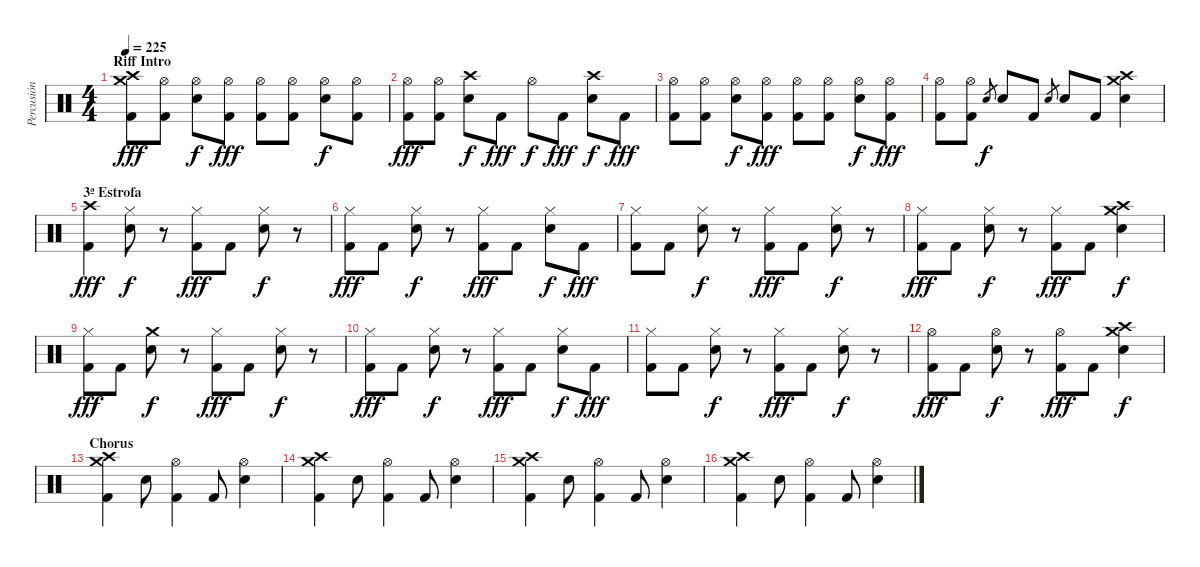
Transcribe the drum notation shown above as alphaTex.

\track ("Percusión" "Percusión") {instrument percussion}
\staff {score}
\articulation defaults
\ts (4 4)
\section ("" "Riff Intro")
\tempo 225
\clef neutral
\ks c
("Kick (hit) 2" "Crash medium (hit)" "Crash high (hit)").8{dy fff} ("Kick (hit) 2" "Hi-Hat (open)").8 ("Electric Snare (hit)" "Hi-Hat (open)").8{dy f} ("Kick (hit) 2" "Hi-Hat (open)").8{dy fff} ("Kick (hit) 2" "Hi-Hat (open)").8 ("Kick (hit) 2" "Hi-Hat (open)").8 ("Electric Snare (hit)" "Hi-Hat (open)").8{dy f} ("Kick (hit) 2" "Hi-Hat (open)").8 |
("Kick (hit) 2" "Hi-Hat (open)").8{dy fff} ("Kick (hit) 2" "Hi-Hat (open)").8 ("Electric Snare (hit)" "Crash high (hit)").8{dy f} "Kick (hit) 2".8{dy fff} "Hi-Hat (open)".8{dy f} "Kick (hit) 2".8{dy fff} ("Electric Snare (hit)" "Crash high (hit)").8{dy f} "Kick (hit) 2".8{dy fff} |
("Kick (hit) 2" "Hi-Hat (open)").8 ("Kick (hit) 2" "Hi-Hat (open)").8 ("Electric Snare (hit)" "Hi-Hat (open)").8{dy f} ("Kick (hit) 2" "Hi-Hat (open)").8{dy fff} ("Kick (hit) 2" "Hi-Hat (open)").8 ("Kick (hit) 2" "Hi-Hat (open)").8 ("Electric Snare (hit)" "Hi-Hat (open)").8{dy f} ("Kick (hit) 2" "Hi-Hat (open)").8{dy fff} |
("Kick (hit) 2" "Hi-Hat (open)").8 ("Kick (hit) 2" "Hi-Hat (open)").8 "Electric Snare (hit)".8{gr dy f} "Electric Snare (hit)".8 "Kick (hit) 2".8 "Electric Snare (hit)".8{gr} "Electric Snare (hit)".8 "Kick (hit) 2".8 ("Electric Snare (hit)" "Crash high (hit)" "Crash medium (hit)").4 |
\section ("" "3ª Estrofa")
("Crash high (hit)" "Kick (hit) 2").4{dy fff} ("Electric Snare (hit)" "Hi-Hat (closed)").8{dy f} r.8 ("Kick (hit) 2" "Hi-Hat (closed)").8{dy fff} "Kick (hit) 2".8 ("Electric Snare (hit)" "Hi-Hat (closed)").8{dy f} r.8 |
("Kick (hit) 2" "Hi-Hat (closed)").8{dy fff} "Kick (hit) 2".8 ("Electric Snare (hit)" "Hi-Hat (closed)").8{dy f} r.8 ("Kick (hit) 2" "Hi-Hat (closed)").8{dy fff} "Kick (hit) 2".8 ("Electric Snare (hit)" "Hi-Hat (closed)").8{dy f} "Kick (hit) 2".8{dy fff} |
("Kick (hit) 2" "Hi-Hat (closed)").8 "Kick (hit) 2".8 ("Electric Snare (hit)" "Hi-Hat (closed)").8{dy f} r.8 ("Kick (hit) 2" "Hi-Hat (closed)").8{dy fff} "Kick (hit) 2".8 ("Electric Snare (hit)" "Hi-Hat (closed)").8{dy f} r.8 |
("Kick (hit) 2" "Hi-Hat (closed)").8{dy fff} "Kick (hit) 2".8 ("Electric Snare (hit)" "Hi-Hat (closed)").8{dy f} r.8 ("Kick (hit) 2" "Hi-Hat (closed)").8{dy fff} "Kick (hit) 2".8 ("Electric Snare (hit)" "Crash medium (hit)" "Crash high (hit)").4{dy f} |
\section ("" "")
("Kick (hit) 2" "Hi-Hat (closed)").8{dy fff} "Kick (hit) 2".8 ("Crash medium (hit)" "Electric Snare (hit)").8{dy f} r.8 ("Kick (hit) 2" "Hi-Hat (closed)").8{dy fff} "Kick (hit) 2".8 ("Electric Snare (hit)" "Hi-Hat (closed)").8{dy f} r.8 |
("Kick (hit) 2" "Hi-Hat (closed)").8{dy fff} "Kick (hit) 2".8 ("Electric Snare (hit)" "Hi-Hat (closed)").8{dy f} r.8 ("Kick (hit) 2" "Hi-Hat (closed)").8{dy fff} "Kick (hit) 2".8 ("Electric Snare (hit)" "Hi-Hat (closed)").8{dy f} "Kick (hit) 2".8{dy fff} |
("Kick (hit) 2" "Hi-Hat (closed)").8 "Kick (hit) 2".8 ("Electric Snare (hit)" "Hi-Hat (closed)").8{dy f} r.8 ("Kick (hit) 2" "Hi-Hat (closed)").8{dy fff} "Kick (hit) 2".8 ("Electric Snare (hit)" "Hi-Hat (closed)").8{dy f} r.8 |
("Kick (hit) 2" "Hi-Hat (open)").8{dy fff} "Kick (hit) 2".8 ("Electric Snare (hit)" "Hi-Hat (open)").8{dy f} r.8 ("Kick (hit) 2" "Hi-Hat (open)").8{dy fff} "Kick (hit) 2".8 ("Electric Snare (hit)" "Crash medium (hit)" "Crash high (hit)").4{dy f} |
\section ("" "Chorus")
("Kick (hit) 2" "Crash medium (hit)" "Crash high (hit)").4 "Electric Snare (hit)".8 ("Kick (hit) 2" "Hi-Hat (open)").4 "Kick (hit) 2".8 ("Electric Snare (hit)" "Hi-Hat (open)").4 |
("Kick (hit) 2" "Crash medium (hit)" "Crash high (hit)").4 "Electric Snare (hit)".8 ("Kick (hit) 2" "Hi-Hat (open)").4 "Kick (hit) 2".8 ("Electric Snare (hit)" "Hi-Hat (open)").4 |
("Kick (hit) 2" "Crash medium (hit)" "Crash high (hit)").4 "Electric Snare (hit)".8 ("Kick (hit) 2" "Hi-Hat (open)").4 "Kick (hit) 2".8 ("Electric Snare (hit)" "Hi-Hat (open)").4 |
("Kick (hit) 2" "Crash medium (hit)" "Crash high (hit)").4 "Electric Snare (hit)".8 ("Kick (hit) 2" "Hi-Hat (open)").4 "Kick (hit) 2".8 ("Electric Snare (hit)" "Hi-Hat (open)").4
